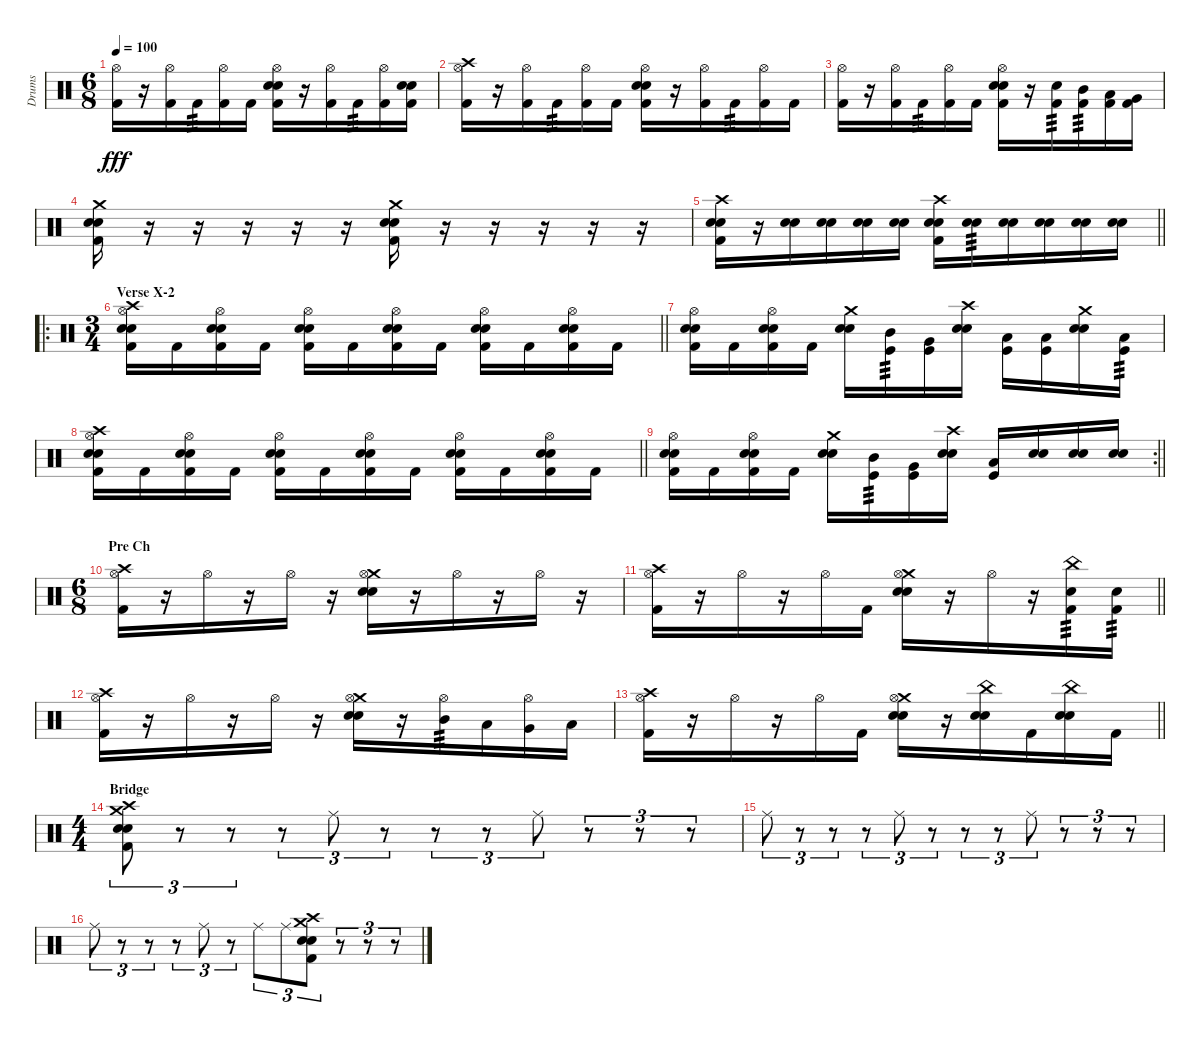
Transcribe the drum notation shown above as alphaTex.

\track ("Drums" "Drums") {instrument percussion}
\staff {score}
\articulation defaults
\ts (6 8)
\tempo 100
\clef neutral
\ks c
("Hi-Hat (open)" "Kick (hit) 2").16{dy fff} r.16 ("Hi-Hat (open)" "Kick (hit) 2").16 "Kick (hit) 2".16{tp 3} ("Hi-Hat (open)" "Kick (hit) 2").16 "Kick (hit) 2".16 ("Hi-Hat (open)" "Snare (hit) 2" "Electric Snare (hit)" "Kick (hit) 2").16 r.16 ("Hi-Hat (open)" "Kick (hit) 2").16 "Kick (hit) 2".16{tp 3} ("Hi-Hat (open)" "Kick (hit) 2").16 ("Snare (hit) 2" "Electric Snare (hit)" "Kick (hit) 2").16 |
("Crash high (hit)" "Hi-Hat (open)" "Kick (hit) 2").16 r.16 ("Hi-Hat (open)" "Kick (hit) 2").16 "Kick (hit) 2".16{tp 3} ("Hi-Hat (open)" "Kick (hit) 2").16 "Kick (hit) 2".16 ("Hi-Hat (open)" "Snare (hit) 2" "Electric Snare (hit)" "Kick (hit) 2").16 r.16 ("Hi-Hat (open)" "Kick (hit) 2").16 "Kick (hit) 2".16{tp 3} ("Hi-Hat (open)" "Kick (hit) 2").16 "Kick (hit) 2".16 |
("Hi-Hat (open)" "Kick (hit) 2").16 r.16 ("Hi-Hat (open)" "Kick (hit) 2").16 "Kick (hit) 2".16{tp 3} ("Hi-Hat (open)" "Kick (hit) 2").16 "Kick (hit) 2".16 ("Hi-Hat (open)" "Snare (hit) 2" "Electric Snare (hit)" "Kick (hit) 2").16 r.16 ("Electric Snare (hit)" "Kick (hit) 2").16{tp 3} ("Mid Tom (hit)" "Kick (hit) 2").16{tp 3} ("Low Tom (hit)" "Kick (hit) 2").16 ("Very Low Tom (hit)" "Kick (hit) 2").16 |
("Crash medium (hit)" "Snare (hit) 2" "Electric Snare (hit)" "Kick (hit) 2").16 r.16 r.16 r.16 r.16 r.16 ("Crash medium (hit)" "Snare (hit) 2" "Electric Snare (hit)" "Kick (hit) 2").16 r.16 r.16 r.16 r.16 r.16 |
\barLineRight lightlight
("Crash high (hit)" "Snare (hit) 2" "Electric Snare (hit)" "Kick (hit) 2").16 r.16 ("Snare (hit) 2" "Electric Snare (hit)").16 ("Snare (hit) 2" "Electric Snare (hit)").16 ("Snare (hit) 2" "Electric Snare (hit)").16 ("Snare (hit) 2" "Electric Snare (hit)").16 ("Crash high (hit)" "Snare (hit) 2" "Electric Snare (hit)" "Kick (hit) 2").16 ("Snare (hit) 2" "Electric Snare (hit)").16{tp 3} ("Snare (hit) 2" "Electric Snare (hit)").16 ("Snare (hit) 2" "Electric Snare (hit)").16 ("Snare (hit) 2" "Electric Snare (hit)").16 ("Snare (hit) 2" "Electric Snare (hit)").16 |
\ro
\ts (3 4)
\section ("" "Verse X-2")
\barLineRight lightlight
("Crash high (hit)" "Hi-Hat (open)" "Snare (hit) 2" "Electric Snare (hit)" "Kick (hit) 2").16 "Kick (hit) 2".16 ("Hi-Hat (open)" "Snare (hit) 2" "Electric Snare (hit)" "Kick (hit) 2").16 "Kick (hit) 2".16 ("Hi-Hat (open)" "Snare (hit) 2" "Electric Snare (hit)" "Kick (hit) 2").16 "Kick (hit) 2".16 ("Hi-Hat (open)" "Snare (hit) 2" "Electric Snare (hit)" "Kick (hit) 2").16 "Kick (hit) 2".16 ("Hi-Hat (open)" "Snare (hit) 2" "Electric Snare (hit)" "Kick (hit) 2").16 "Kick (hit) 2".16 ("Hi-Hat (open)" "Snare (hit) 2" "Electric Snare (hit)" "Kick (hit) 2").16 "Kick (hit) 2".16 |
("Hi-Hat (open)" "Snare (hit) 2" "Electric Snare (hit)" "Kick (hit) 2").16 "Kick (hit) 2".16 ("Hi-Hat (open)" "Snare (hit) 2" "Electric Snare (hit)" "Kick (hit) 2").16 "Kick (hit) 2".16 ("Crash medium (hit)" "Snare (hit) 2" "Electric Snare (hit)").16 ("Mid Tom (hit)" "Kick (hit)").16{tp 3} ("Very Low Tom (hit)" "Kick (hit)").16 ("Crash high (hit)" "Snare (hit) 2" "Electric Snare (hit)").16 ("Low Tom (hit)" "Kick (hit)").16 ("Low Floor Tom (hit)" "Kick (hit)").16 ("Crash medium (hit)" "Snare (hit) 2" "Electric Snare (hit)").16 ("Low Tom (hit)" "Kick (hit)").16{tp 3} |
\barLineRight lightlight
("Crash high (hit)" "Hi-Hat (open)" "Snare (hit) 2" "Electric Snare (hit)" "Kick (hit) 2").16 "Kick (hit) 2".16 ("Hi-Hat (open)" "Snare (hit) 2" "Electric Snare (hit)" "Kick (hit) 2").16 "Kick (hit) 2".16 ("Hi-Hat (open)" "Snare (hit) 2" "Electric Snare (hit)" "Kick (hit) 2").16 "Kick (hit) 2".16 ("Hi-Hat (open)" "Snare (hit) 2" "Electric Snare (hit)" "Kick (hit) 2").16 "Kick (hit) 2".16 ("Hi-Hat (open)" "Snare (hit) 2" "Electric Snare (hit)" "Kick (hit) 2").16 "Kick (hit) 2".16 ("Hi-Hat (open)" "Snare (hit) 2" "Electric Snare (hit)" "Kick (hit) 2").16 "Kick (hit) 2".16 |
\rc 2
\barLineRight lightlight
("Hi-Hat (open)" "Snare (hit) 2" "Electric Snare (hit)" "Kick (hit) 2").16 "Kick (hit) 2".16 ("Hi-Hat (open)" "Snare (hit) 2" "Electric Snare (hit)" "Kick (hit) 2").16 "Kick (hit) 2".16 ("Crash medium (hit)" "Snare (hit) 2" "Electric Snare (hit)").16 ("Mid Tom (hit)" "Kick (hit)").16{tp 3} ("Very Low Tom (hit)" "Kick (hit)").16 ("Crash high (hit)" "Snare (hit) 2" "Electric Snare (hit)").16 ("Low Tom (hit)" "Kick (hit)").16 ("Snare (hit) 2" "Electric Snare (hit)").16 ("Snare (hit) 2" "Electric Snare (hit)").16 ("Snare (hit) 2" "Electric Snare (hit)").16 |
\ts (6 8)
\section ("" "Pre Ch")
("Crash high (hit)" "Hi-Hat (open)" "Kick (hit) 2").16 r.16 "Hi-Hat (open)".16 r.16 "Hi-Hat (open)".16 r.16 ("Crash medium (hit)" "Hi-Hat (open)" "Snare (hit) 2" "Electric Snare (hit)").16 r.16 "Hi-Hat (open)".16 r.16 "Hi-Hat (open)".16 r.16 |
\barLineRight lightlight
("Crash high (hit)" "Hi-Hat (open)" "Kick (hit) 2").16 r.16 "Hi-Hat (open)".16 r.16 "Hi-Hat (open)".16 "Kick (hit) 2".16 ("Crash medium (hit)" "Hi-Hat (open)" "Snare (hit) 2" "Electric Snare (hit)").16 r.16 "Hi-Hat (open)".16 r.16 ("China (hit)" "Electric Snare (hit)" "Kick (hit) 2").16{tp 3} ("Electric Snare (hit)" "Kick (hit) 2").16{tp 3} |
("Crash high (hit)" "Hi-Hat (open)" "Kick (hit) 2").16 r.16 "Hi-Hat (open)".16 r.16 "Hi-Hat (open)".16 r.16 ("Crash medium (hit)" "Hi-Hat (open)" "Snare (hit) 2" "Electric Snare (hit)").16 r.16 ("Hi-Hat (open)" "Mid Tom (hit)").16{tp 3} "Low Tom (hit)".16 ("Hi-Hat (open)" "Very Low Tom (hit)").16 "Low Floor Tom (hit)".16 |
\barLineRight lightlight
("Crash high (hit)" "Hi-Hat (open)" "Kick (hit) 2").16 r.16 "Hi-Hat (open)".16 r.16 "Hi-Hat (open)".16 "Kick (hit) 2".16 ("Crash medium (hit)" "Hi-Hat (open)" "Snare (hit) 2" "Electric Snare (hit)").16 r.16 ("China (hit)" "Snare (hit) 2" "Electric Snare (hit)").16 "Kick (hit) 2".16 ("China (hit)" "Snare (hit) 2" "Electric Snare (hit)").16 "Kick (hit) 2".16 |
\ts (4 4)
\section ("" "Bridge")
("Crash medium (hit)" "Crash high (hit)" "Snare (hit) 2" "Electric Snare (hit)" "Kick (hit) 2").8{tu (3 2)} r.8{tu (3 2)} r.8{tu (3 2)} r.8{tu (3 2)} "Ride (middle)".8{tu (3 2)} r.8{tu (3 2)} r.8{tu (3 2)} r.8{tu (3 2)} "Ride (middle)".8{tu (3 2)} r.8{tu (3 2)} r.8{tu (3 2)} r.8{tu (3 2)} |
"Ride (middle)".8{tu (3 2)} r.8{tu (3 2)} r.8{tu (3 2)} r.8{tu (3 2)} "Ride (middle)".8{tu (3 2)} r.8{tu (3 2)} r.8{tu (3 2)} r.8{tu (3 2)} "Ride (middle)".8{tu (3 2)} r.8{tu (3 2)} r.8{tu (3 2)} r.8{tu (3 2)} |
"Ride (middle)".8{tu (3 2)} r.8{tu (3 2)} r.8{tu (3 2)} r.8{tu (3 2)} "Ride (middle)".8{tu (3 2)} r.8{tu (3 2)} "Ride (middle)".8{tu (3 2)} "Ride (middle)".8{tu (3 2)} ("Crash high (hit)" "Crash medium (hit)" "Snare (hit) 2" "Electric Snare (hit)" "Kick (hit) 2").8{tu (3 2)} r.8{tu (3 2)} r.8{tu (3 2)} r.8{tu (3 2)}
